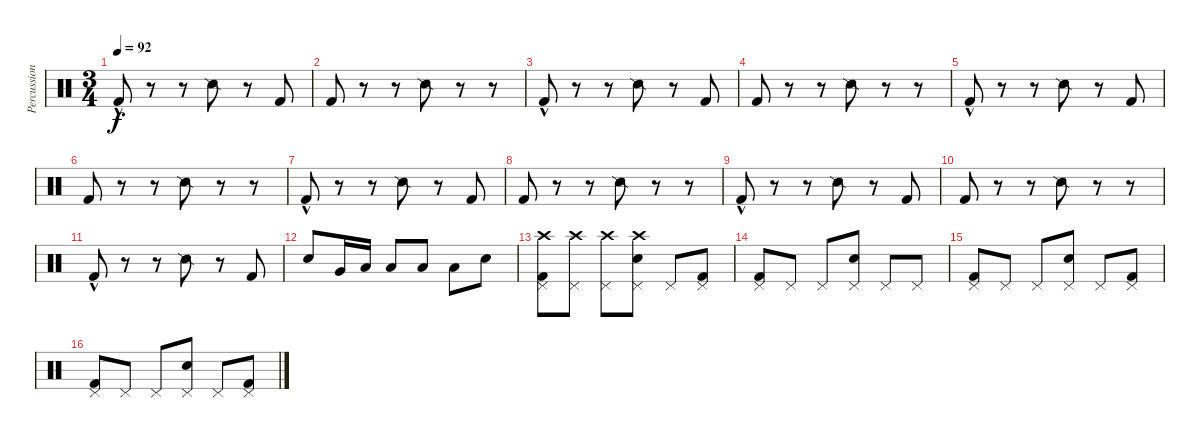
\track ("Percussion" "Percussion") {instrument percussion}
\staff {score}
\articulation defaults
\ts (3 4)
\tempo 92
\clef neutral
\ks c "Kick (hit) 2"{hac}.8{dy f}
r.8 r.8 "Snare (side stick) 2".8 r.8 "Kick (hit) 2".8 |
"Kick (hit) 2".8 r.8 r.8 "Snare (side stick) 2".8 r.8 r.8 |
"Kick (hit) 2"{hac}.8 r.8 r.8 "Snare (side stick) 2".8 r.8 "Kick (hit) 2".8 |
"Kick (hit) 2".8 r.8 r.8 "Snare (side stick) 2".8 r.8 r.8 |
"Kick (hit) 2"{hac}.8 r.8 r.8 "Snare (side stick) 2".8 r.8 "Kick (hit) 2".8 |
"Kick (hit) 2".8 r.8 r.8 "Snare (side stick) 2".8 r.8 r.8 |
"Kick (hit) 2"{hac}.8 r.8 r.8 "Snare (side stick) 2".8 r.8 "Kick (hit) 2".8 |
"Kick (hit) 2".8 r.8 r.8 "Snare (side stick) 2".8 r.8 r.8 |
"Kick (hit) 2"{hac}.8 r.8 r.8 "Snare (side stick) 2".8 r.8 "Kick (hit) 2".8 |
"Kick (hit) 2".8 r.8 r.8 "Snare (side stick) 2".8 r.8 r.8 |
"Kick (hit) 2"{hac}.8 r.8 r.8 "Snare (side stick) 2".8 r.8 "Kick (hit) 2".8 |
"Electric Snare (hit)".8 "Very Low Tom (hit)".16 "Low Tom (hit)".16 "Low Tom (hit)".8 "Low Tom (hit)".8 "Low Tom (hit)".8 "Snare (hit)".8 |
("Pedal Hi-Hat (hit)" "Kick (hit) 2" "Crash high (hit)").8 ("Pedal Hi-Hat (hit)" "Crash high (hit)").8 ("Pedal Hi-Hat (hit)" "Crash high (hit)").8 ("Pedal Hi-Hat (hit)" "Electric Snare (hit)" "Crash high (hit)").8 "Pedal Hi-Hat (hit)".8 ("Pedal Hi-Hat (hit)" "Kick (hit) 2").8 |
("Pedal Hi-Hat (hit)" "Kick (hit) 2").8 "Pedal Hi-Hat (hit)".8 "Pedal Hi-Hat (hit)".8 ("Pedal Hi-Hat (hit)" "Electric Snare (hit)").8 "Pedal Hi-Hat (hit)".8 "Pedal Hi-Hat (hit)".8 |
("Pedal Hi-Hat (hit)" "Kick (hit) 2").8 "Pedal Hi-Hat (hit)".8 "Pedal Hi-Hat (hit)".8 ("Pedal Hi-Hat (hit)" "Electric Snare (hit)").8 "Pedal Hi-Hat (hit)".8 ("Pedal Hi-Hat (hit)" "Kick (hit) 2").8 |
("Pedal Hi-Hat (hit)" "Kick (hit) 2").8 "Pedal Hi-Hat (hit)".8 "Pedal Hi-Hat (hit)".8 ("Pedal Hi-Hat (hit)" "Electric Snare (hit)").8 "Pedal Hi-Hat (hit)".8 ("Pedal Hi-Hat (hit)" "Kick (hit) 2").8
